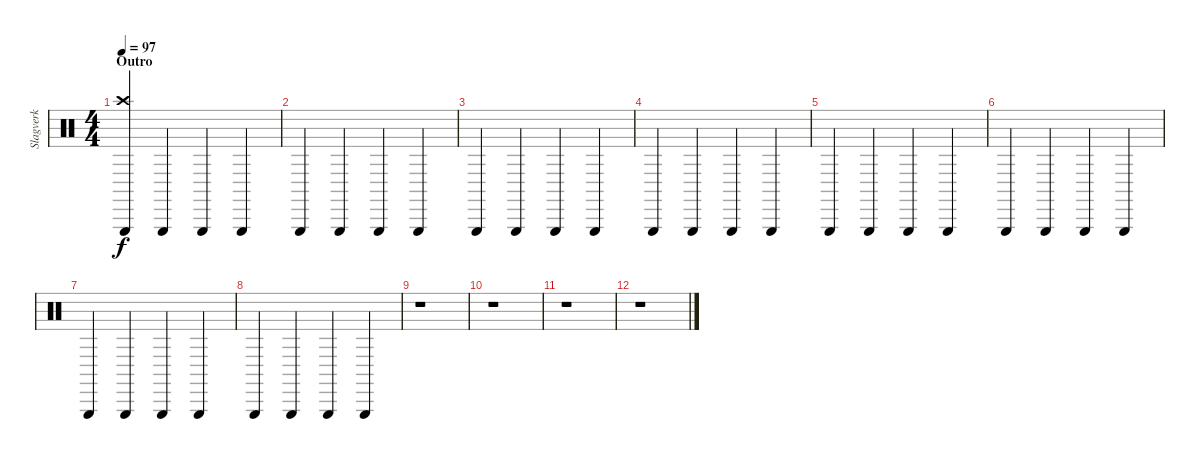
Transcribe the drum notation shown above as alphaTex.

\track ("Slagverk" "Slagverk") {instrument percussion}
\staff {score}
\articulation defaults
\ts (4 4)
\section ("" "Outro")
\tempo 97
\clef neutral
\ks c
("Crash high (hit)" "Triangle (hit)").4{dy f} "Triangle (hit)".4 "Triangle (hit)".4 "Triangle (hit)".4 |
"Triangle (hit)".4 "Triangle (hit)".4 "Triangle (hit)".4 "Triangle (hit)".4 |
"Triangle (hit)".4 "Triangle (hit)".4 "Triangle (hit)".4 "Triangle (hit)".4 |
"Triangle (hit)".4 "Triangle (hit)".4 "Triangle (hit)".4 "Triangle (hit)".4 |
"Triangle (hit)".4 "Triangle (hit)".4 "Triangle (hit)".4 "Triangle (hit)".4 |
"Triangle (hit)".4 "Triangle (hit)".4 "Triangle (hit)".4 "Triangle (hit)".4 |
"Triangle (hit)".4 "Triangle (hit)".4 "Triangle (hit)".4 "Triangle (hit)".4 |
"Triangle (hit)".4 "Triangle (hit)".4 "Triangle (hit)".4 "Triangle (hit)".4 |
r.1 |
r.1 |
r.1 |
r.1
